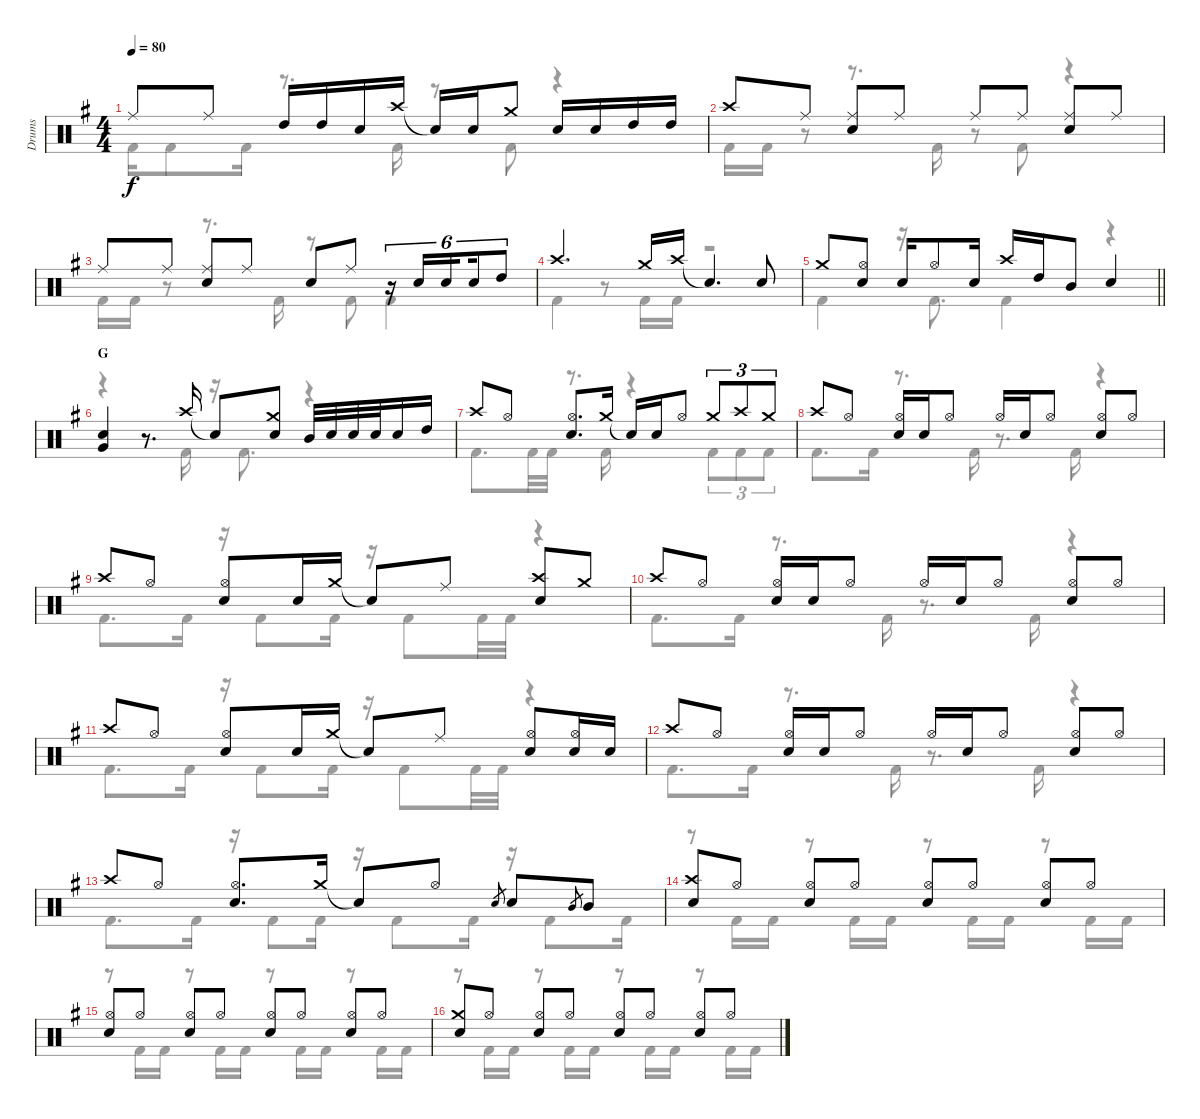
\track ("Drums" "Drums") {instrument percussion}
\staff {score}
\articulation defaults
\voice
\ts (4 4)
\tempo 80
\clef neutral
\ks g "Ride (middle)".8{dy f} "Ride (middle)".8 "High Tom (hit)".16 "High Tom (hit)".16 "Snare (hit) 2".16 "Crash high (hit)".16 "Snare (hit)"{t}.16 "Snare (hit) 2".16 "Crash medium (hit)".8 "Snare (hit) 2".16 "Snare (hit) 2".16 "High Tom (hit)".16 "High Tom (hit)".16
|
"Crash high (hit)".8 "Ride (middle)".8 ("Ride (middle)" "Snare (hit) 2").8 "Ride (middle)".8 "Ride (middle)".8 "Ride (middle)".8 ("Ride (middle)" "Snare (hit) 2").8 "Ride (middle)".8 |
"Ride (middle)".8 "Ride (middle)".8 ("Ride (middle)" "Snare (hit) 2").8 "Ride (middle)".8 "Snare (hit)".8 "Ride (middle)".8 r.16{tu (6 4)} "Snare (hit) 2".16{tu (6 4)} "Snare (hit) 2".16{tu (6 4) beam splitsecondary} "Snare (hit) 2".16{tu (6 4)} "High Tom (hit)".8{tu (6 4)} |
"Crash high (hit)".4{d} "Crash medium (hit)".16 "Crash high (hit)".16 "Snare (hit)"{t}.4{d} "Snare (hit) 2".8 |
\barLineRight lightlight "Crash medium (hit)".8
("Hi-Hat (open)" "Snare (hit) 2").8 "Snare (hit) 2".16 "Hi-Hat (open)".8 "Snare (hit) 2".16 "Crash high (hit)".16 "High Tom (hit)".16 "Mid Tom (hit)".8 "Snare (hit) 2".4 |
\section ("" "G")
("Snare (hit) 2" "Very Low Tom (hit)").4 r.8{d} "Crash high (hit)".16 "Snare (hit)"{t}.8 ("Crash medium (hit)" "Snare (hit) 2").8 "Mid Tom (hit)".32 "Snare (hit) 2".32 "Snare (hit) 2".32 "Snare (hit) 2".32 "Snare (hit) 2".16 "High Tom (hit)".16 |
"Crash high (hit)".8 "Hi-Hat (open)".8 ("Hi-Hat (open)" "Snare (hit) 2").8{d} "Crash medium (hit)".16 "Snare (hit)"{t}.16 "Snare (hit) 2".16 "Hi-Hat (open)".8 "Crash medium (hit)".8{tu (3 2)} "Crash high (hit)".8{tu (3 2)} "Crash medium (hit)".8{tu (3 2)} |
"Crash high (hit)".8 "Hi-Hat (open)".8 ("Hi-Hat (open)" "Snare (hit) 2").16 "Snare (hit) 2".16 "Hi-Hat (open)".8 "Hi-Hat (open)".16 "Snare (hit) 2".16 "Hi-Hat (open)".8 ("Hi-Hat (open)" "Snare (hit) 2").8 "Hi-Hat (open)".8 |
"Crash high (hit)".8 "Hi-Hat (open)".8 ("Hi-Hat (open)" "Snare (hit) 2").8 "Snare (hit) 2".16 "Crash medium (hit)".16 "Snare (hit)"{t}.8 "Ride (middle)".8 ("Crash high (hit)" "Snare (hit) 2").8 "Crash medium (hit)".8 |
"Crash high (hit)".8 "Hi-Hat (open)".8 ("Hi-Hat (open)" "Snare (hit) 2").16 "Snare (hit) 2".16 "Hi-Hat (open)".8 "Hi-Hat (open)".16 "Snare (hit) 2".16 "Hi-Hat (open)".8 ("Hi-Hat (open)" "Snare (hit) 2").8 "Hi-Hat (open)".8 |
"Crash high (hit)".8 "Hi-Hat (open)".8 ("Hi-Hat (open)" "Snare (hit) 2").8 "Snare (hit) 2".16 "Crash medium (hit)".16 "Snare (hit)"{t}.8 "Ride (middle)".8 ("Hi-Hat (open)" "Snare (hit) 2").8 ("Hi-Hat (open)" "Snare (hit) 2").16 "Snare (hit) 2".16 |
"Crash high (hit)".8 "Hi-Hat (open)".8 ("Hi-Hat (open)" "Snare (hit) 2").16 "Snare (hit) 2".16 "Hi-Hat (open)".8 "Hi-Hat (open)".16 "Snare (hit) 2".16 "Hi-Hat (open)".8 ("Hi-Hat (open)" "Snare (hit) 2").8 "Hi-Hat (open)".8 |
"Crash high (hit)".8 "Hi-Hat (open)".8 ("Hi-Hat (open)" "Snare (hit) 2").8{d} "Crash medium (hit)".16 "Snare (hit)"{t}.8 "Hi-Hat (open)".8 "Snare (hit) 2".8{gr} "Snare (hit) 2".8 "Mid Tom (hit)".8{gr} "Mid Tom (hit)".8 |
("Crash high (hit)" "Snare (hit) 2").8 "Hi-Hat (open)".8 ("Hi-Hat (open)" "Snare (hit) 2").8 "Hi-Hat (open)".8 ("Hi-Hat (open)" "Snare (hit) 2").8 "Hi-Hat (open)".8 ("Hi-Hat (open)" "Snare (hit) 2").8 "Hi-Hat (open)".8 |
("Hi-Hat (open)" "Snare (hit) 2").8 "Hi-Hat (open)".8 ("Hi-Hat (open)" "Snare (hit) 2").8 "Hi-Hat (open)".8 ("Hi-Hat (open)" "Snare (hit) 2").8 "Hi-Hat (open)".8 ("Hi-Hat (open)" "Snare (hit) 2").8 "Hi-Hat (open)".8 |
("Crash medium (hit)" "Snare (hit) 2").8 "Hi-Hat (open)".8 ("Hi-Hat (open)" "Snare (hit) 2").8 "Hi-Hat (open)".8 ("Hi-Hat (open)" "Snare (hit) 2").8 "Hi-Hat (open)".8 ("Hi-Hat (open)" "Snare (hit) 2").8 "Hi-Hat (open)".8
\voice
\clef neutral
\ottava regular
\simile none
\ks g "Kick (hit) 2".16{dy f} "Kick (hit) 2".8 "Kick (hit) 2".16
r.8{d} "Kick (hit) 2".16 r.8 "Kick (hit) 2".8 r.4 |
"Kick (hit) 2".16 "Kick (hit) 2".16 r.8 r.8{d} "Kick (hit) 2".16 r.8 "Kick (hit) 2".8 r.4 |
"Kick (hit) 2".16 "Kick (hit) 2".16 r.8 r.8{d} "Kick (hit) 2".16 r.8 "Kick (hit) 2".8 "Kick (hit) 2".4 |
"Kick (hit) 2".4 r.8 "Kick (hit) 2".16 "Kick (hit) 2".16 r.2 |
\barLineRight lightlight "Kick (hit) 2".4
r.16 "Kick (hit) 2".8{d} "Kick (hit) 2".4 r.4 |
r.4 r.8{d} "Kick (hit) 2".16 r.16 "Kick (hit) 2".8{d} r.4 |
"Kick (hit) 2".8{d} "Kick (hit) 2".32 "Kick (hit) 2".32 r.8{d} "Kick (hit) 2".16 r.4 "Kick (hit) 2".8{tu (3 2)} "Kick (hit) 2".8{tu (3 2)} "Kick (hit) 2".8{tu (3 2)} |
"Kick (hit) 2".8{d} "Kick (hit) 2".16 r.8{d} "Kick (hit) 2".16 r.8{d} "Kick (hit) 2".16 r.4 |
"Kick (hit) 2".8{d} "Kick (hit) 2".16 r.16 "Kick (hit) 2".8 "Kick (hit) 2".16 r.16 "Kick (hit) 2".8 "Kick (hit) 2".32 "Kick (hit) 2".32 r.4 |
"Kick (hit) 2".8{d} "Kick (hit) 2".16 r.8{d} "Kick (hit) 2".16 r.8{d} "Kick (hit) 2".16 r.4 |
"Kick (hit) 2".8{d} "Kick (hit) 2".16 r.16 "Kick (hit) 2".8 "Kick (hit) 2".16 r.16 "Kick (hit) 2".8 "Kick (hit) 2".32 "Kick (hit) 2".32 r.4 |
"Kick (hit) 2".8{d} "Kick (hit) 2".16 r.8{d} "Kick (hit) 2".16 r.8{d} "Kick (hit) 2".16 r.4 |
"Kick (hit) 2".8{d} "Kick (hit) 2".16 r.16 "Kick (hit) 2".8 "Kick (hit) 2".16 r.16 "Kick (hit) 2".8 "Kick (hit) 2".16 r.16 "Kick (hit) 2".8 "Kick (hit) 2".16 |
r.8 "Kick (hit) 2".16 "Kick (hit) 2".16 r.8 "Kick (hit) 2".16 "Kick (hit) 2".16 r.8 "Kick (hit) 2".16 "Kick (hit) 2".16 r.8 "Kick (hit) 2".16 "Kick (hit) 2".16 |
r.8 "Kick (hit) 2".16 "Kick (hit) 2".16 r.8 "Kick (hit) 2".16 "Kick (hit) 2".16 r.8 "Kick (hit) 2".16 "Kick (hit) 2".16 r.8 "Kick (hit) 2".16 "Kick (hit) 2".16 |
r.8 "Kick (hit) 2".16 "Kick (hit) 2".16 r.8 "Kick (hit) 2".16 "Kick (hit) 2".16 r.8 "Kick (hit) 2".16 "Kick (hit) 2".16 r.8 "Kick (hit) 2".16 "Kick (hit) 2".16
